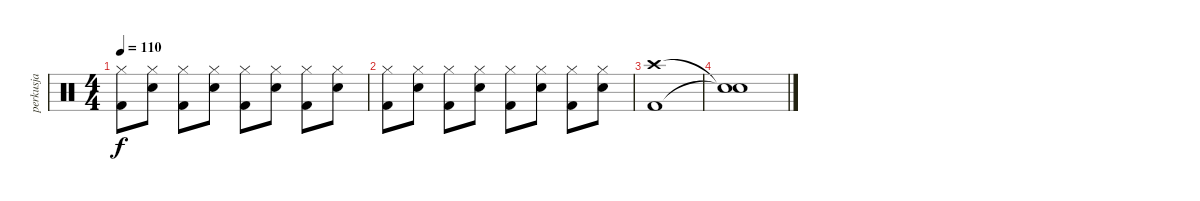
\track ("perkusja" "perkusja") {instrument percussion}
\staff {score}
\articulation defaults
\ts (4 4)
\tempo 110
\clef neutral
\ks c
("Hi-Hat (closed)" "Kick (hit) 2").8{dy f} ("Hi-Hat (closed)" "Electric Snare (hit)").8 ("Hi-Hat (closed)" "Kick (hit) 2").8 ("Hi-Hat (closed)" "Electric Snare (hit)").8 ("Hi-Hat (closed)" "Kick (hit) 2").8 ("Hi-Hat (closed)" "Electric Snare (hit)").8 ("Hi-Hat (closed)" "Kick (hit) 2").8 ("Hi-Hat (closed)" "Electric Snare (hit)").8 |
("Hi-Hat (closed)" "Kick (hit) 2").8 ("Hi-Hat (closed)" "Electric Snare (hit)").8 ("Hi-Hat (closed)" "Kick (hit) 2").8 ("Hi-Hat (closed)" "Electric Snare (hit)").8 ("Hi-Hat (closed)" "Kick (hit) 2").8 ("Hi-Hat (closed)" "Electric Snare (hit)").8 ("Hi-Hat (closed)" "Kick (hit) 2").8 ("Hi-Hat (closed)" "Electric Snare (hit)").8 |
("Crash high (hit)" "Kick (hit) 2").1 |
("Snare (hit)"{t} "Snare (hit)"{t}).1
